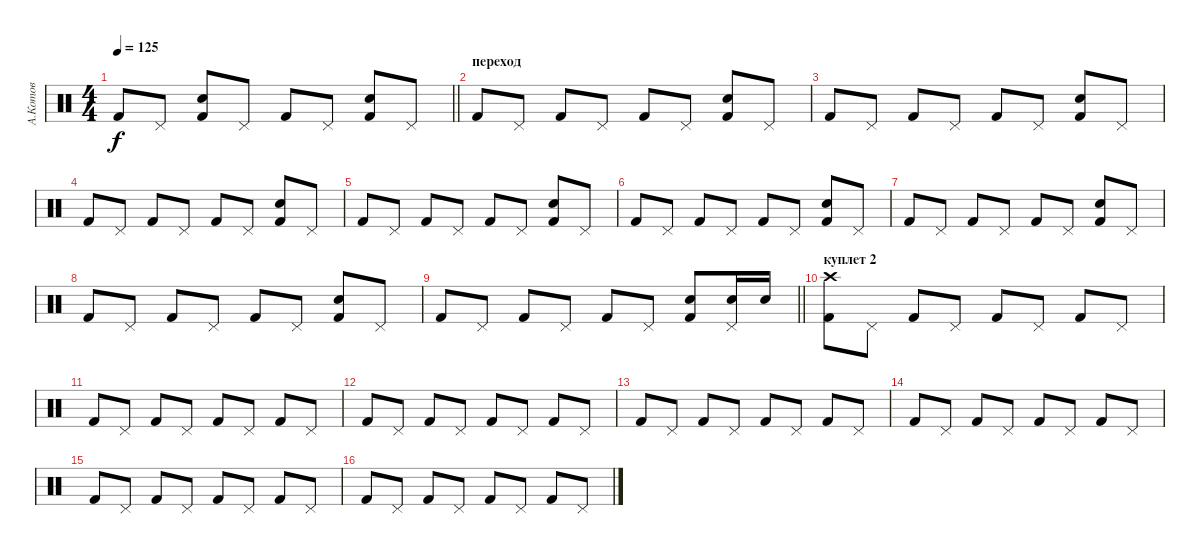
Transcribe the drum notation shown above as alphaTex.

\track ("А.Котов" "А.Котов") {instrument percussion}
\staff {score}
\articulation defaults
\ts (4 4)
\tempo 125
\clef neutral
\barLineRight lightlight
\ks c "Kick (hit) 2".8{dy f} "Pedal Hi-Hat (hit)".8
("Kick (hit) 2" "Snare (hit) 2").8 "Pedal Hi-Hat (hit)".8 "Kick (hit) 2".8 "Pedal Hi-Hat (hit)".8 ("Kick (hit) 2" "Snare (hit) 2").8 "Pedal Hi-Hat (hit)".8 |
\section ("" "переход")
"Kick (hit) 2".8 "Pedal Hi-Hat (hit)".8 "Kick (hit) 2".8 "Pedal Hi-Hat (hit)".8 "Kick (hit) 2".8 "Pedal Hi-Hat (hit)".8 ("Kick (hit) 2" "Snare (hit) 2").8 "Pedal Hi-Hat (hit)".8 |
"Kick (hit) 2".8 "Pedal Hi-Hat (hit)".8 "Kick (hit) 2".8 "Pedal Hi-Hat (hit)".8 "Kick (hit) 2".8 "Pedal Hi-Hat (hit)".8 ("Kick (hit) 2" "Snare (hit) 2").8 "Pedal Hi-Hat (hit)".8 |
"Kick (hit) 2".8 "Pedal Hi-Hat (hit)".8 "Kick (hit) 2".8 "Pedal Hi-Hat (hit)".8 "Kick (hit) 2".8 "Pedal Hi-Hat (hit)".8 ("Kick (hit) 2" "Snare (hit) 2").8 "Pedal Hi-Hat (hit)".8 |
"Kick (hit) 2".8 "Pedal Hi-Hat (hit)".8 "Kick (hit) 2".8 "Pedal Hi-Hat (hit)".8 "Kick (hit) 2".8 "Pedal Hi-Hat (hit)".8 ("Kick (hit) 2" "Snare (hit) 2").8 "Pedal Hi-Hat (hit)".8 |
"Kick (hit) 2".8 "Pedal Hi-Hat (hit)".8 "Kick (hit) 2".8 "Pedal Hi-Hat (hit)".8 "Kick (hit) 2".8 "Pedal Hi-Hat (hit)".8 ("Kick (hit) 2" "Snare (hit) 2").8 "Pedal Hi-Hat (hit)".8 |
"Kick (hit) 2".8 "Pedal Hi-Hat (hit)".8 "Kick (hit) 2".8 "Pedal Hi-Hat (hit)".8 "Kick (hit) 2".8 "Pedal Hi-Hat (hit)".8 ("Kick (hit) 2" "Snare (hit) 2").8 "Pedal Hi-Hat (hit)".8 |
"Kick (hit) 2".8 "Pedal Hi-Hat (hit)".8 "Kick (hit) 2".8 "Pedal Hi-Hat (hit)".8 "Kick (hit) 2".8 "Pedal Hi-Hat (hit)".8 ("Kick (hit) 2" "Snare (hit) 2").8 "Pedal Hi-Hat (hit)".8 |
\barLineRight lightlight "Kick (hit) 2".8 "Pedal Hi-Hat (hit)".8 "Kick (hit) 2".8 "Pedal Hi-Hat (hit)".8 "Kick (hit) 2".8 "Pedal Hi-Hat (hit)".8
("Kick (hit) 2" "Snare (hit) 2").8 ("Pedal Hi-Hat (hit)" "Snare (hit) 2").16 "Snare (hit) 2".16 |
\section ("" "куплет 2")
("Kick (hit) 2" "Crash high (hit)").8 "Pedal Hi-Hat (hit)".8 "Kick (hit) 2".8 "Pedal Hi-Hat (hit)".8 "Kick (hit) 2".8 "Pedal Hi-Hat (hit)".8 "Kick (hit) 2".8 "Pedal Hi-Hat (hit)".8 |
"Kick (hit) 2".8 "Pedal Hi-Hat (hit)".8 "Kick (hit) 2".8 "Pedal Hi-Hat (hit)".8 "Kick (hit) 2".8 "Pedal Hi-Hat (hit)".8 "Kick (hit) 2".8 "Pedal Hi-Hat (hit)".8 |
"Kick (hit) 2".8 "Pedal Hi-Hat (hit)".8 "Kick (hit) 2".8 "Pedal Hi-Hat (hit)".8 "Kick (hit) 2".8 "Pedal Hi-Hat (hit)".8 "Kick (hit) 2".8 "Pedal Hi-Hat (hit)".8 |
"Kick (hit) 2".8 "Pedal Hi-Hat (hit)".8 "Kick (hit) 2".8 "Pedal Hi-Hat (hit)".8 "Kick (hit) 2".8 "Pedal Hi-Hat (hit)".8 "Kick (hit) 2".8 "Pedal Hi-Hat (hit)".8 |
"Kick (hit) 2".8 "Pedal Hi-Hat (hit)".8 "Kick (hit) 2".8 "Pedal Hi-Hat (hit)".8 "Kick (hit) 2".8 "Pedal Hi-Hat (hit)".8 "Kick (hit) 2".8 "Pedal Hi-Hat (hit)".8 |
"Kick (hit) 2".8 "Pedal Hi-Hat (hit)".8 "Kick (hit) 2".8 "Pedal Hi-Hat (hit)".8 "Kick (hit) 2".8 "Pedal Hi-Hat (hit)".8 "Kick (hit) 2".8 "Pedal Hi-Hat (hit)".8 |
"Kick (hit) 2".8 "Pedal Hi-Hat (hit)".8 "Kick (hit) 2".8 "Pedal Hi-Hat (hit)".8 "Kick (hit) 2".8 "Pedal Hi-Hat (hit)".8 "Kick (hit) 2".8 "Pedal Hi-Hat (hit)".8
